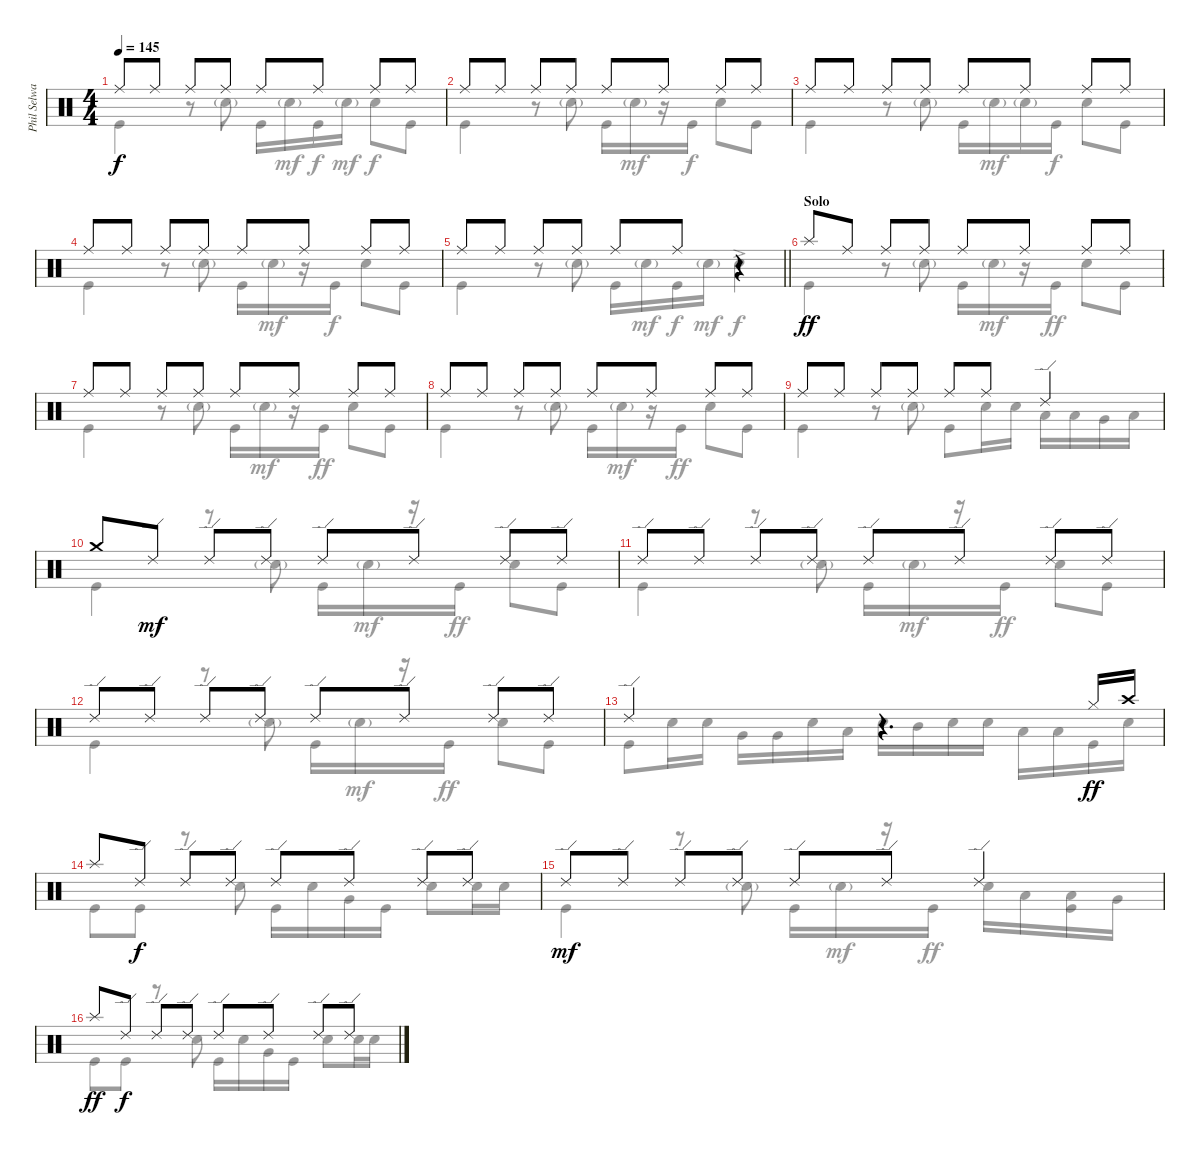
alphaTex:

\track ("Phil Selway" "Phil Selwa") {instrument percussion}
\staff {score}
\articulation defaults
\voice
\ts (4 4)
\tempo 145
\clef neutral
\ks c "Ride (middle)".8{dy f} "Ride (middle)".8 "Ride (middle)".8 "Ride (middle)".8 "Ride (middle)".8 "Ride (middle)".8 "Ride (middle)".8 "Ride (middle)".8
|
"Ride (middle)".8 "Ride (middle)".8 "Ride (middle)".8 "Ride (middle)".8 "Ride (middle)".8 "Ride (middle)".8 "Ride (middle)".8 "Ride (middle)".8 |
"Ride (middle)".8 "Ride (middle)".8 "Ride (middle)".8 "Ride (middle)".8 "Ride (middle)".8 "Ride (middle)".8 "Ride (middle)".8 "Ride (middle)".8 |
"Ride (middle)".8 "Ride (middle)".8 "Ride (middle)".8 "Ride (middle)".8 "Ride (middle)".8 "Ride (middle)".8 "Ride (middle)".8 "Ride (middle)".8 |
\barLineRight lightlight "Ride (middle)".8 "Ride (middle)".8 "Ride (middle)".8 "Ride (middle)".8 "Ride (middle)".8 "Ride (middle)".8
r.4 |
\section ("" "Solo")
"Splash (hit)".8{dy ff} "Ride (middle)".8 "Ride (middle)".8 "Ride (middle)".8 "Ride (middle)".8 "Ride (middle)".8 "Ride (middle)".8 "Ride (middle)".8 |
"Ride (middle)".8 "Ride (middle)".8 "Ride (middle)".8 "Ride (middle)".8 "Ride (middle)".8 "Ride (middle)".8 "Ride (middle)".8 "Ride (middle)".8 |
"Ride (middle)".8 "Ride (middle)".8 "Ride (middle)".8 "Ride (middle)".8 "Ride (middle)".8 "Ride (middle)".8 "Ride (middle)".8 "Ride (middle)".8 |
"Ride (middle)".8 "Ride (middle)".8 "Ride (middle)".8 "Ride (middle)".8 "Ride (middle)".8 "Ride (middle)".8 "Ride (edge) 2".4 |
"Crash medium (hit)".8 "Ride (edge) 2".8{dy mf} "Ride (edge) 2".8 "Ride (edge) 2".8 "Ride (edge) 2".8 "Ride (edge) 2".8 "Ride (edge) 2".8 "Ride (edge) 2".8 |
"Ride (edge) 2".8 "Ride (edge) 2".8 "Ride (edge) 2".8 "Ride (edge) 2".8 "Ride (edge) 2".8 "Ride (edge) 2".8 "Ride (edge) 2".8 "Ride (edge) 2".8 |
"Ride (edge) 2".8 "Ride (edge) 2".8 "Ride (edge) 2".8 "Ride (edge) 2".8 "Ride (edge) 2".8 "Ride (edge) 2".8 "Ride (edge) 2".8 "Ride (edge) 2".8 |
"Ride (edge) 2".2 r.4{d} "Hi-Hat (closed)".16{dy ff} "Crash high (hit)".16 |
"Splash (hit)".8 "Ride (edge) 2".8{dy f} "Ride (edge) 2".8 "Ride (edge) 2".8 "Ride (edge) 2".8 "Ride (edge) 2".8 "Ride (edge) 2".8 "Ride (edge) 2".8 |
"Ride (edge) 2".8{dy mf} "Ride (edge) 2".8 "Ride (edge) 2".8 "Ride (edge) 2".8 "Ride (edge) 2".8 "Ride (edge) 2".8 "Ride (edge) 2".4 |
"Splash (hit)".8{dy ff} "Ride (edge) 2".8{dy f} "Ride (edge) 2".8 "Ride (edge) 2".8 "Ride (edge) 2".8 "Ride (edge) 2".8 "Ride (edge) 2".8 "Ride (edge) 2".8
\voice
\clef neutral
\ottava regular
\simile none
\ks c "Kick (hit)".4{dy f}
r.8 "Snare (hit) 2"{g}.8 "Kick (hit)".16 "Snare (hit) 2"{g}.16{dy mf} "Kick (hit)".16{dy f} "Snare (hit) 2"{g}.16{dy mf} "Snare (hit) 2".8{dy f} "Kick (hit)".8 |
"Kick (hit)".4 r.8 "Snare (hit) 2"{g}.8 "Kick (hit)".16 "Snare (hit) 2"{g}.16{dy mf} r.16 "Kick (hit)".16{dy f} "Snare (hit) 2".8 "Kick (hit)".8 |
"Kick (hit)".4 r.8 "Snare (hit) 2"{g}.8 "Kick (hit)".16 "Snare (hit) 2"{g}.16{dy mf} "Snare (hit) 2"{g}.16 "Kick (hit)".16{dy f} "Snare (hit) 2".8 "Kick (hit)".8 |
"Kick (hit)".4 r.8 "Snare (hit) 2"{g}.8 "Kick (hit)".16 "Snare (hit) 2"{g}.16{dy mf} r.16 "Kick (hit)".16{dy f} "Snare (hit) 2".8 "Kick (hit)".8 |
\barLineRight lightlight "Kick (hit)".4
r.8 "Snare (hit) 2"{g}.8 "Kick (hit)".16 "Snare (hit) 2"{g}.16{dy mf} "Kick (hit)".16{dy f} "Snare (hit) 2"{g}.16{dy mf} "Snare (hit) 2"{ac}.4{dy f} |
"Kick (hit)".4{dy ff} r.8 "Snare (hit) 2"{g}.8 "Kick (hit)".16 "Snare (hit) 2"{g}.16{dy mf} r.16 "Kick (hit)".16{dy ff} "Snare (hit) 2".8 "Kick (hit)".8 |
"Kick (hit)".4 r.8 "Snare (hit) 2"{g}.8 "Kick (hit)".16 "Snare (hit) 2"{g}.16{dy mf} r.16 "Kick (hit)".16{dy ff} "Snare (hit) 2".8 "Kick (hit)".8 |
"Kick (hit)".4 r.8 "Snare (hit) 2"{g}.8 "Kick (hit)".16 "Snare (hit) 2"{g}.16{dy mf} r.16 "Kick (hit)".16{dy ff} "Snare (hit) 2".8 "Kick (hit)".8 |
"Kick (hit)".4 r.8 "Snare (hit) 2"{g}.8 "Kick (hit)".8 "Snare (hit) 2".16 "Snare (hit) 2".16 "Low Tom (hit)".16 "Low Tom (hit)".16 "Very Low Tom (hit)".16 "Low Floor Tom (hit)".16 |
"Kick (hit)".4 r.8 "Snare (hit) 2"{g}.8 "Kick (hit)".16 "Snare (hit) 2"{g}.16{dy mf} r.16 "Kick (hit)".16{dy ff} "Snare (hit) 2".8 "Kick (hit)".8 |
"Kick (hit)".4 r.8 "Snare (hit) 2"{g}.8 "Kick (hit)".16 "Snare (hit) 2"{g}.16{dy mf} r.16 "Kick (hit)".16{dy ff} "Snare (hit) 2".8 "Kick (hit)".8 |
"Kick (hit)".4 r.8 "Snare (hit) 2"{g}.8 "Kick (hit)".16 "Snare (hit) 2"{g}.16{dy mf} r.16 "Kick (hit)".16{dy ff} "Snare (hit) 2".8 "Kick (hit)".8 |
"Kick (hit)".8 "Snare (hit) 2".16 "Snare (hit) 2".16 "Very Low Tom (hit)".16 "Very Low Tom (hit)".16 "Snare (hit) 2".16 "Low Tom (hit)".16 "Snare (hit) 2".16 "Mid Tom (hit)".16 "Snare (hit) 2".16 "Snare (hit) 2".16 "Low Tom (hit)".16 "Low Tom (hit)".16 "Kick (hit)".16 "Snare (hit) 2".16 |
"Kick (hit)".8 "Kick (hit)".8 r.8 "Snare (hit) 2".8 "Kick (hit)".16 "Snare (hit) 2".16 "Very Low Tom (hit)".16 "Kick (hit)".16 "Snare (hit) 2".8 "Snare (hit) 2".16 "Snare (hit) 2".16 |
"Kick (hit)".4 r.8 "Snare (hit) 2"{g}.8 "Kick (hit)".16 "Snare (hit) 2"{g}.16{dy mf} r.16 "Kick (hit)".16{dy ff} "Snare (hit) 2".16 "Low Tom (hit)".16 ("Low Tom (hit)" "Kick (hit)").16 "Very Low Tom (hit)".16 |
"Kick (hit)".8 "Kick (hit)".8 r.8 "Snare (hit) 2".8 "Kick (hit)".16 "Snare (hit) 2".16 "Very Low Tom (hit)".16 "Kick (hit)".16 "Snare (hit) 2".8 "Snare (hit) 2".16 "Snare (hit) 2".16
